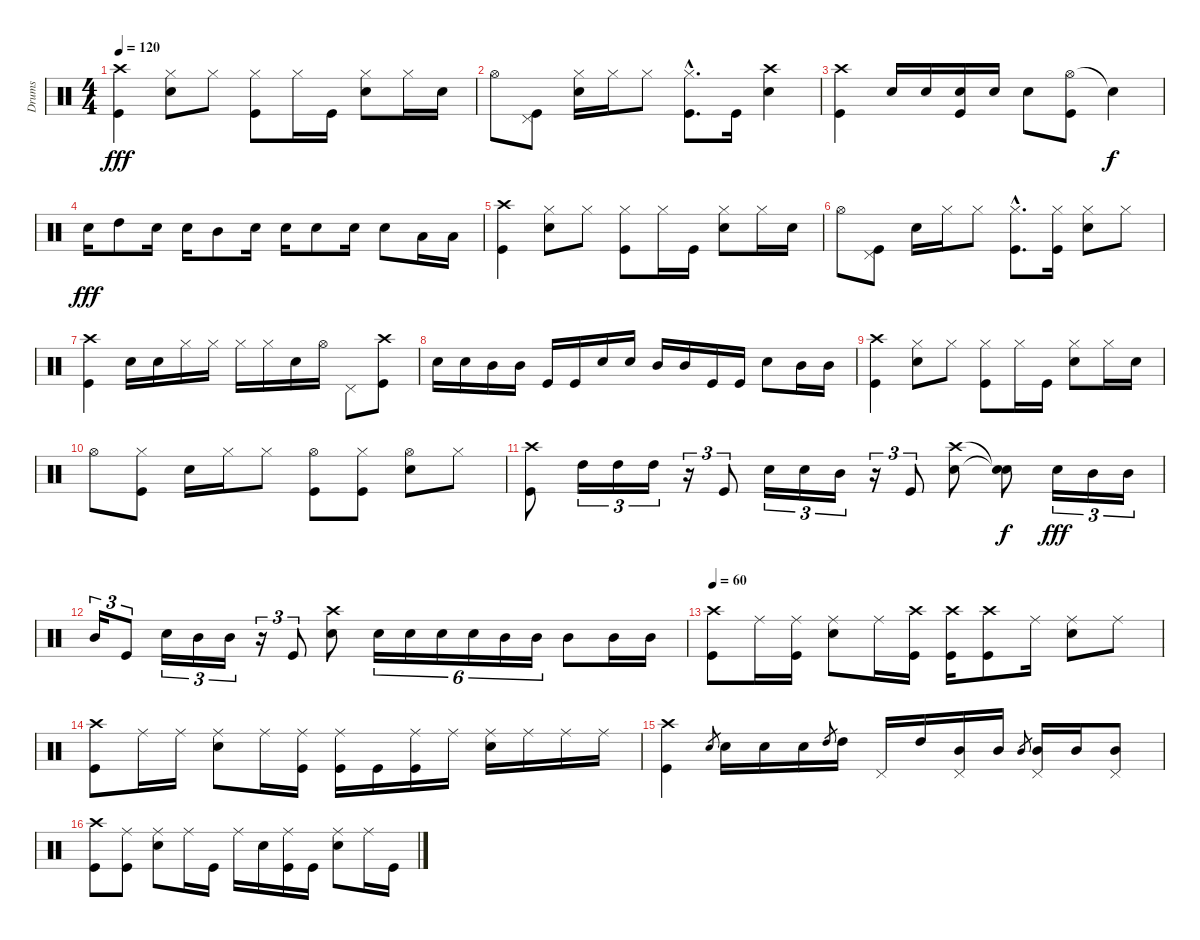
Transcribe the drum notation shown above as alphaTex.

\track ("Drums" "Drums") {instrument percussion}
\staff {score}
\articulation defaults
\ts (4 4)
\tempo 120
\clef neutral
\ks c
("Crash high (hit)" "Kick (hit)").4{dy fff} ("Hi-Hat (closed)" "Snare (hit) 2").8 "Hi-Hat (closed)".8 ("Hi-Hat (closed)" "Kick (hit)").8 "Hi-Hat (closed)".16 "Kick (hit)".16 ("Hi-Hat (closed)" "Snare (hit) 2").8 "Hi-Hat (closed)".16 "Snare (hit) 2".16 |
"Hi-Hat (open)".8 ("Pedal Hi-Hat (hit)" "Kick (hit)").8 ("Hi-Hat (closed)" "Snare (hit) 2").16 "Hi-Hat (closed)".16 "Hi-Hat (closed)".8 ("Hi-Hat (closed)"{hac} "Kick (hit)"{hac}).8{d} "Kick (hit)".16 ("Crash high (hit)" "Snare (hit) 2").4 |
("Crash high (hit)" "Kick (hit)").4 "Snare (hit) 2".16 "Snare (hit) 2".16 ("Snare (hit) 2" "Kick (hit)").16 "Snare (hit) 2".16 "Snare (hit) 2".8 ("Hi-Hat (open)" "Kick (hit)").8 "Snare (hit)"{t}.4{dy f} |
"Snare (hit) 2".16{dy fff} "High Tom (hit)".8 "Snare (hit) 2".16 "Snare (hit) 2".16 "Mid Tom (hit)".8 "Snare (hit) 2".16 "Snare (hit) 2".16 "Snare (hit) 2".8 "Snare (hit) 2".16 "Snare (hit) 2".8 "Low Tom (hit)".16 "Low Tom (hit)".16 |
("Crash high (hit)" "Kick (hit)").4 ("Hi-Hat (closed)" "Snare (hit) 2").8 "Hi-Hat (closed)".8 ("Hi-Hat (closed)" "Kick (hit)").8 "Hi-Hat (closed)".16 "Kick (hit)".16 ("Hi-Hat (closed)" "Snare (hit) 2").8 "Hi-Hat (closed)".16 "Snare (hit) 2".16 |
"Hi-Hat (open)".8 ("Pedal Hi-Hat (hit)" "Kick (hit)").8 "Snare (hit) 2".16 "Hi-Hat (closed)".16 "Hi-Hat (closed)".8 ("Hi-Hat (closed)"{hac} "Kick (hit)"{hac}).8{d} ("Hi-Hat (closed)" "Kick (hit)").16 ("Hi-Hat (closed)" "Snare (hit) 2").8 "Hi-Hat (closed)".8 |
("Crash high (hit)" "Kick (hit)").4 "Snare (hit) 2".16 "Snare (hit) 2".16 "Hi-Hat (closed)".16 "Hi-Hat (closed)".16 "Hi-Hat (closed)".16 "Hi-Hat (closed)".16 "Snare (hit) 2".16 "Hi-Hat (open)".16 "Pedal Hi-Hat (hit)".8 ("Crash high (hit)" "Kick (hit)").8 |
"Snare (hit) 2".16 "Snare (hit) 2".16 "Mid Tom (hit)".16 "Mid Tom (hit)".16 "Kick (hit)".16 "Kick (hit)".16 "Snare (hit) 2".16 "Snare (hit) 2".16 "Mid Tom (hit)".16 "Mid Tom (hit)".16 "Kick (hit)".16 "Kick (hit)".16 "Snare (hit) 2".8 "Mid Tom (hit)".16 "Mid Tom (hit)".16 |
("Crash high (hit)" "Kick (hit)").4 ("Hi-Hat (closed)" "Snare (hit) 2").8 "Hi-Hat (closed)".8 ("Hi-Hat (closed)" "Kick (hit)").8 "Hi-Hat (closed)".16 "Kick (hit)".16 ("Hi-Hat (closed)" "Snare (hit) 2").8 "Hi-Hat (closed)".16 "Snare (hit) 2".16 |
"Hi-Hat (open)".8 ("Hi-Hat (closed)" "Kick (hit)").8 "Snare (hit) 2".16 "Hi-Hat (closed)".16 "Hi-Hat (closed)".8 ("Hi-Hat (open)" "Kick (hit)").8 ("Hi-Hat (closed)" "Kick (hit)").8 ("Hi-Hat (open)" "Snare (hit) 2").8 "Hi-Hat (closed)".8 |
("Crash high (hit)" "Kick (hit)").8 "High Tom (hit)".16{tu (3 2)} "High Tom (hit)".16{tu (3 2)} "High Tom (hit)".16{tu (3 2)} r.16{tu (3 2)} "Kick (hit)".8{tu (3 2)} "Snare (hit) 2".16{tu (3 2)} "Snare (hit) 2".16{tu (3 2)} "Mid Tom (hit)".16{tu (3 2)} r.16{tu (3 2)} "Kick (hit)".8{tu (3 2)} ("Crash high (hit)" "Snare (hit) 2").8 ("Snare (hit)"{t} "Snare (hit)"{t}).8{dy f} "Snare (hit) 2".16{tu (3 2) dy fff} "Mid Tom (hit)".16{tu (3 2)} "Mid Tom (hit)".16{tu (3 2)} |
"Mid Tom (hit)".16{tu (3 2)} "Kick (hit)".8{tu (3 2)} "Snare (hit) 2".16{tu (3 2)} "Mid Tom (hit)".16{tu (3 2)} "Mid Tom (hit)".16{tu (3 2)} r.16{tu (3 2)} "Kick (hit)".8{tu (3 2)} ("Crash high (hit)" "Snare (hit) 2").8 "Snare (hit) 2".16{tu (6 4)} "Snare (hit) 2".16{tu (6 4)} "Snare (hit) 2".16{tu (6 4)} "Snare (hit) 2".16{tu (6 4)} "Mid Tom (hit)".16{tu (6 4)} "Mid Tom (hit)".16{tu (6 4)} "Mid Tom (hit)".8 "Mid Tom (hit)".16 "Mid Tom (hit)".16 |
\tempo 60
("Crash high (hit)" "Kick (hit)").8 "Ride (middle)".16 ("Ride (middle)" "Kick (hit)").16 ("Ride (middle)" "Snare (hit) 2").8 "Ride (middle)".16 ("Crash high (hit)" "Kick (hit)").16 ("Crash high (hit)" "Kick (hit)").16 ("Crash high (hit)" "Kick (hit)").8 "Ride (middle)".16 ("Ride (middle)" "Snare (hit) 2").8 "Ride (middle)".8 |
("Crash high (hit)" "Kick (hit)").8 "Ride (middle)".16 "Ride (middle)".16 ("Ride (middle)" "Snare (hit) 2").8 "Ride (middle)".16 ("Ride (middle)" "Kick (hit)").16 ("Ride (middle)" "Kick (hit)").16 "Kick (hit)".16 ("Ride (middle)" "Kick (hit)").16 "Ride (middle)".16 ("Ride (middle)" "Snare (hit) 2").16 "Ride (middle)".16 "Ride (middle)".16 "Ride (middle)".16 |
("Crash high (hit)" "Kick (hit)").4 "Snare (hit) 2".8{gr} "Snare (hit) 2".16 "Snare (hit) 2".16 "Snare (hit) 2".16 "High Tom (hit)".8{gr} "High Tom (hit)".16 "Pedal Hi-Hat (hit)".16 "High Tom (hit)".16 ("Pedal Hi-Hat (hit)" "Mid Tom (hit)").16 "Mid Tom (hit)".16 "Mid Tom (hit)".8{gr} ("Pedal Hi-Hat (hit)" "Mid Tom (hit)").16 "Mid Tom (hit)".16 ("Pedal Hi-Hat (hit)" "Mid Tom (hit)").8 |
("Crash high (hit)" "Kick (hit)").8 ("Ride (middle)" "Kick (hit)").8 ("Ride (middle)" "Snare (hit) 2").8 "Ride (middle)".16 "Kick (hit)".16 "Ride (middle)".16 "Snare (hit) 2".16 ("Ride (middle)" "Kick (hit)").16 "Kick (hit)".16 ("Ride (middle)" "Snare (hit) 2").8 "Ride (middle)".16 "Kick (hit)".16
